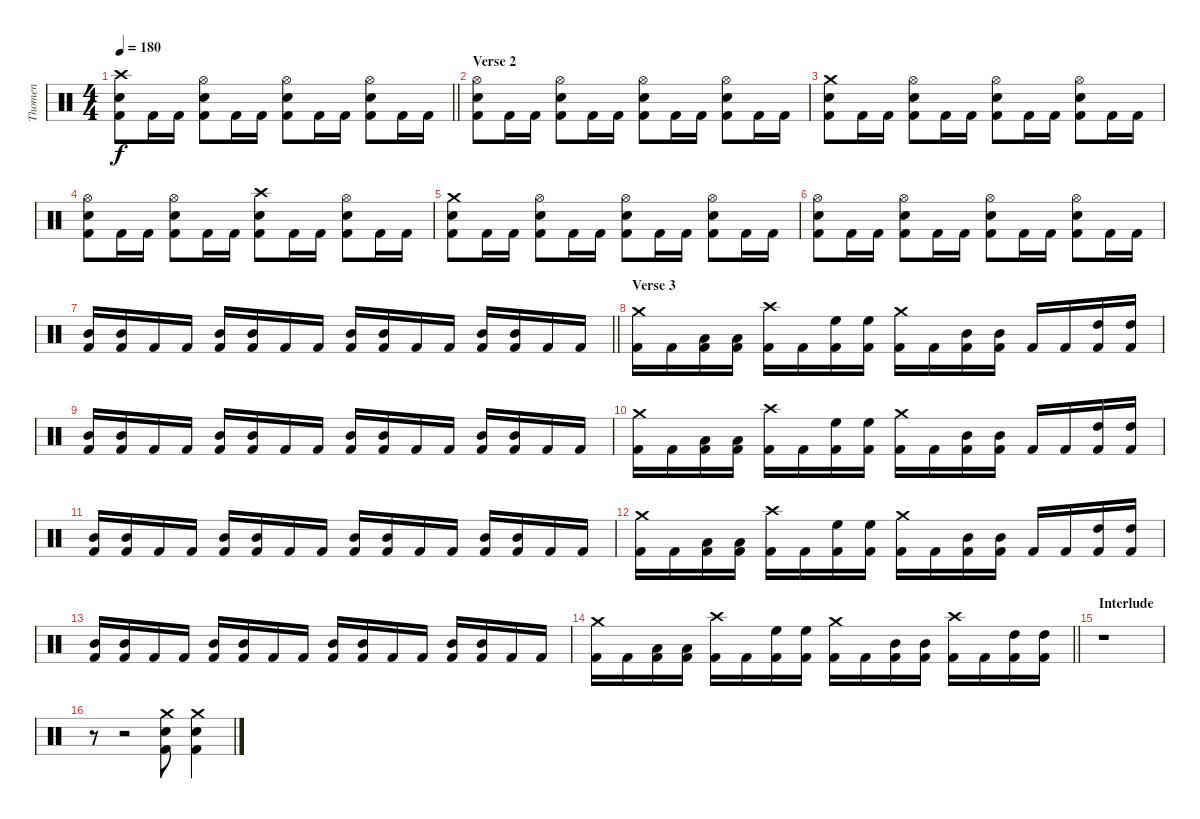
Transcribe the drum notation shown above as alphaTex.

\track ("Thomen" "Thomen") {instrument percussion}
\staff {score}
\articulation defaults
\ts (4 4)
\tempo 180
\clef neutral
\barLineRight lightlight
\ks c
("Kick (hit) 2" "Electric Snare (hit)" "Crash high (hit)").8{dy f} "Kick (hit) 2".16 "Kick (hit) 2".16 ("Kick (hit) 2" "Electric Snare (hit)" "Hi-Hat (open)").8 "Kick (hit) 2".16 "Kick (hit) 2".16 ("Kick (hit) 2" "Electric Snare (hit)" "Hi-Hat (open)").8 "Kick (hit) 2".16 "Kick (hit) 2".16 ("Kick (hit) 2" "Electric Snare (hit)" "Hi-Hat (open)").8 "Kick (hit) 2".16 "Kick (hit) 2".16 |
\section ("" "Verse 2 ")
("Kick (hit) 2" "Electric Snare (hit)" "Hi-Hat (open)").8 "Kick (hit) 2".16 "Kick (hit) 2".16 ("Kick (hit) 2" "Electric Snare (hit)" "Hi-Hat (open)").8 "Kick (hit) 2".16 "Kick (hit) 2".16 ("Kick (hit) 2" "Electric Snare (hit)" "Hi-Hat (open)").8 "Kick (hit) 2".16 "Kick (hit) 2".16 ("Kick (hit) 2" "Electric Snare (hit)" "Hi-Hat (open)").8 "Kick (hit) 2".16 "Kick (hit) 2".16 |
("Kick (hit) 2" "Electric Snare (hit)" "Crash medium (hit)").8 "Kick (hit) 2".16 "Kick (hit) 2".16 ("Kick (hit) 2" "Electric Snare (hit)" "Hi-Hat (open)").8 "Kick (hit) 2".16 "Kick (hit) 2".16 ("Kick (hit) 2" "Electric Snare (hit)" "Hi-Hat (open)").8 "Kick (hit) 2".16 "Kick (hit) 2".16 ("Kick (hit) 2" "Electric Snare (hit)" "Hi-Hat (open)").8 "Kick (hit) 2".16 "Kick (hit) 2".16 |
("Kick (hit) 2" "Electric Snare (hit)" "Hi-Hat (open)").8 "Kick (hit) 2".16 "Kick (hit) 2".16 ("Kick (hit) 2" "Electric Snare (hit)" "Hi-Hat (open)").8 "Kick (hit) 2".16 "Kick (hit) 2".16 ("Kick (hit) 2" "Electric Snare (hit)" "Crash high (hit)").8 "Kick (hit) 2".16 "Kick (hit) 2".16 ("Kick (hit) 2" "Electric Snare (hit)" "Hi-Hat (open)").8 "Kick (hit) 2".16 "Kick (hit) 2".16 |
("Kick (hit) 2" "Electric Snare (hit)" "Crash medium (hit)").8 "Kick (hit) 2".16 "Kick (hit) 2".16 ("Kick (hit) 2" "Electric Snare (hit)" "Hi-Hat (open)").8 "Kick (hit) 2".16 "Kick (hit) 2".16 ("Kick (hit) 2" "Electric Snare (hit)" "Hi-Hat (open)").8 "Kick (hit) 2".16 "Kick (hit) 2".16 ("Kick (hit) 2" "Electric Snare (hit)" "Hi-Hat (open)").8 "Kick (hit) 2".16 "Kick (hit) 2".16 |
("Kick (hit) 2" "Electric Snare (hit)" "Hi-Hat (open)").8 "Kick (hit) 2".16 "Kick (hit) 2".16 ("Kick (hit) 2" "Electric Snare (hit)" "Hi-Hat (open)").8 "Kick (hit) 2".16 "Kick (hit) 2".16 ("Kick (hit) 2" "Electric Snare (hit)" "Hi-Hat (open)").8 "Kick (hit) 2".16 "Kick (hit) 2".16 ("Kick (hit) 2" "Electric Snare (hit)" "Hi-Hat (open)").8 "Kick (hit) 2".16 "Kick (hit) 2".16 |
\barLineRight lightlight
("Kick (hit) 2" "Mid Tom (hit)").16 ("Kick (hit) 2" "Mid Tom (hit)").16 "Kick (hit) 2".16 "Kick (hit) 2".16 ("Kick (hit) 2" "Mid Tom (hit)").16 ("Kick (hit) 2" "Mid Tom (hit)").16 "Kick (hit) 2".16 "Kick (hit) 2".16 ("Kick (hit) 2" "Mid Tom (hit)").16 ("Kick (hit) 2" "Mid Tom (hit)").16 "Kick (hit) 2".16 "Kick (hit) 2".16 ("Kick (hit) 2" "Mid Tom (hit)").16 ("Kick (hit) 2" "Mid Tom (hit)").16 "Kick (hit) 2".16 "Kick (hit) 2".16 |
\section ("" "Verse 3")
("Kick (hit) 2" "Crash medium (hit)").16 "Kick (hit) 2".16 ("Kick (hit) 2" "Low Tom (hit)").16 ("Kick (hit) 2" "Low Tom (hit)").16 ("Kick (hit) 2" "Crash high (hit)").16 "Kick (hit) 2".16 ("Kick (hit) 2" "High Floor Tom (hit)").16 ("Kick (hit) 2" "High Floor Tom (hit)").16 ("Kick (hit) 2" "Crash medium (hit)").16 "Kick (hit) 2".16 ("Kick (hit) 2" "Mid Tom (hit)").16 ("Kick (hit) 2" "Mid Tom (hit)").16 "Kick (hit) 2".16 "Kick (hit) 2".16 ("Kick (hit) 2" "High Tom (hit)").16 ("Kick (hit) 2" "High Tom (hit)").16 |
("Kick (hit) 2" "Mid Tom (hit)").16 ("Kick (hit) 2" "Mid Tom (hit)").16 "Kick (hit) 2".16 "Kick (hit) 2".16 ("Kick (hit) 2" "Mid Tom (hit)").16 ("Kick (hit) 2" "Mid Tom (hit)").16 "Kick (hit) 2".16 "Kick (hit) 2".16 ("Kick (hit) 2" "Mid Tom (hit)").16 ("Kick (hit) 2" "Mid Tom (hit)").16 "Kick (hit) 2".16 "Kick (hit) 2".16 ("Kick (hit) 2" "Mid Tom (hit)").16 ("Kick (hit) 2" "Mid Tom (hit)").16 "Kick (hit) 2".16 "Kick (hit) 2".16 |
("Kick (hit) 2" "Crash medium (hit)").16 "Kick (hit) 2".16 ("Kick (hit) 2" "Low Tom (hit)").16 ("Kick (hit) 2" "Low Tom (hit)").16 ("Kick (hit) 2" "Crash high (hit)").16 "Kick (hit) 2".16 ("Kick (hit) 2" "High Floor Tom (hit)").16 ("Kick (hit) 2" "High Floor Tom (hit)").16 ("Kick (hit) 2" "Crash medium (hit)").16 "Kick (hit) 2".16 ("Kick (hit) 2" "Mid Tom (hit)").16 ("Kick (hit) 2" "Mid Tom (hit)").16 "Kick (hit) 2".16 "Kick (hit) 2".16 ("Kick (hit) 2" "High Tom (hit)").16 ("Kick (hit) 2" "High Tom (hit)").16 |
("Kick (hit) 2" "Mid Tom (hit)").16 ("Kick (hit) 2" "Mid Tom (hit)").16 "Kick (hit) 2".16 "Kick (hit) 2".16 ("Kick (hit) 2" "Mid Tom (hit)").16 ("Kick (hit) 2" "Mid Tom (hit)").16 "Kick (hit) 2".16 "Kick (hit) 2".16 ("Kick (hit) 2" "Mid Tom (hit)").16 ("Kick (hit) 2" "Mid Tom (hit)").16 "Kick (hit) 2".16 "Kick (hit) 2".16 ("Kick (hit) 2" "Mid Tom (hit)").16 ("Kick (hit) 2" "Mid Tom (hit)").16 "Kick (hit) 2".16 "Kick (hit) 2".16 |
("Kick (hit) 2" "Crash medium (hit)").16 "Kick (hit) 2".16 ("Kick (hit) 2" "Low Tom (hit)").16 ("Kick (hit) 2" "Low Tom (hit)").16 ("Kick (hit) 2" "Crash high (hit)").16 "Kick (hit) 2".16 ("Kick (hit) 2" "High Floor Tom (hit)").16 ("Kick (hit) 2" "High Floor Tom (hit)").16 ("Kick (hit) 2" "Crash medium (hit)").16 "Kick (hit) 2".16 ("Kick (hit) 2" "Mid Tom (hit)").16 ("Kick (hit) 2" "Mid Tom (hit)").16 "Kick (hit) 2".16 "Kick (hit) 2".16 ("Kick (hit) 2" "High Tom (hit)").16 ("Kick (hit) 2" "High Tom (hit)").16 |
("Kick (hit) 2" "Mid Tom (hit)").16 ("Kick (hit) 2" "Mid Tom (hit)").16 "Kick (hit) 2".16 "Kick (hit) 2".16 ("Kick (hit) 2" "Mid Tom (hit)").16 ("Kick (hit) 2" "Mid Tom (hit)").16 "Kick (hit) 2".16 "Kick (hit) 2".16 ("Kick (hit) 2" "Mid Tom (hit)").16 ("Kick (hit) 2" "Mid Tom (hit)").16 "Kick (hit) 2".16 "Kick (hit) 2".16 ("Kick (hit) 2" "Mid Tom (hit)").16 ("Kick (hit) 2" "Mid Tom (hit)").16 "Kick (hit) 2".16 "Kick (hit) 2".16 |
\barLineRight lightlight
("Kick (hit) 2" "Crash medium (hit)").16 "Kick (hit) 2".16 ("Kick (hit) 2" "Low Tom (hit)").16 ("Kick (hit) 2" "Low Tom (hit)").16 ("Kick (hit) 2" "Crash high (hit)").16 "Kick (hit) 2".16 ("Kick (hit) 2" "High Floor Tom (hit)").16 ("Kick (hit) 2" "High Floor Tom (hit)").16 ("Kick (hit) 2" "Crash medium (hit)").16 "Kick (hit) 2".16 ("Kick (hit) 2" "Mid Tom (hit)").16 ("Kick (hit) 2" "Mid Tom (hit)").16 ("Kick (hit) 2" "Crash high (hit)").16 "Kick (hit) 2".16 ("Kick (hit) 2" "High Tom (hit)").16 ("Kick (hit) 2" "High Tom (hit)").16 |
\section ("" "Interlude")
r.1 |
r.8 r.2 ("Kick (hit) 2" "Electric Snare (hit)" "Crash medium (hit)").8 ("Kick (hit) 2" "Electric Snare (hit)" "Crash medium (hit)").4
